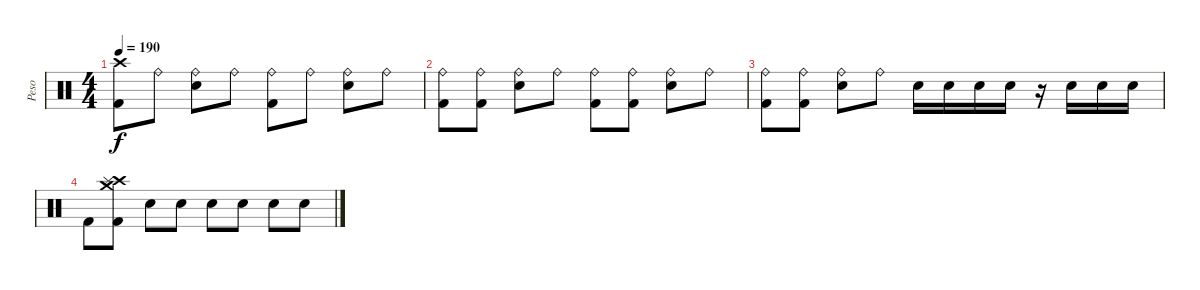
\track ("Peso" "Peso") {instrument percussion}
\staff {score}
\articulation defaults
\ts (4 4)
\tempo 190
\clef neutral
\ks c
("Crash high (hit)" "Kick (hit) 2").8{dy f} "Ride (bell)".8 ("Ride (bell)" "Snare (hit) 2").8 "Ride (bell)".8 ("Ride (bell)" "Kick (hit) 2").8 "Ride (bell)".8 ("Ride (bell)" "Snare (hit) 2").8 "Ride (bell)".8 |
("Ride (bell)" "Kick (hit) 2").8 ("Ride (bell)" "Kick (hit) 2").8 ("Ride (bell)" "Snare (hit) 2").8 "Ride (bell)".8 ("Ride (bell)" "Kick (hit) 2").8 ("Ride (bell)" "Kick (hit) 2").8 ("Ride (bell)" "Snare (hit) 2").8 "Ride (bell)".8 |
("Ride (bell)" "Kick (hit) 2").8 ("Ride (bell)" "Kick (hit) 2").8 ("Ride (bell)" "Snare (hit) 2").8 "Ride (bell)".8 "Snare (hit) 2".16 "Snare (hit) 2".16 "Snare (hit) 2".16 "Snare (hit) 2".16 r.16 "Snare (hit) 2".16 "Snare (hit) 2".16 "Snare (hit) 2".16 |
"Kick (hit) 2"{x}.8 ("Crash high (hit)" "Splash (hit)" "Crash medium (hit)" "Kick (hit) 2").8 "Snare (hit)"{x}.8 "Snare (hit)"{x}.8 "Snare (hit)"{x}.8 "Snare (hit)"{x}.8 "Snare (hit)"{x}.8 "Snare (hit)"{x}.8
